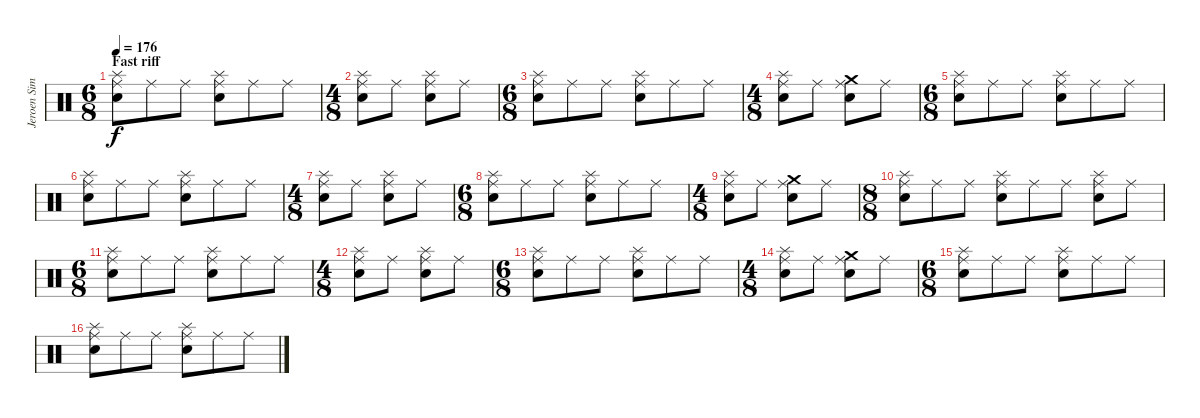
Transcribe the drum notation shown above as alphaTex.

\track ("Jeroen Simons" "Jeroen Sim") {instrument percussion}
\staff {score}
\articulation defaults
\ts (6 8)
\section ("" "Fast riff")
\tempo 176
\clef neutral
\ks c
("Ride (middle)" "Splash (hit)" "Electric Snare (hit)").8{dy f} "Ride (middle)".8 "Ride (middle)".8 ("Ride (middle)" "Splash (hit)" "Electric Snare (hit)").8 "Ride (middle)".8 "Ride (middle)".8 |
\ts (4 8)
("Ride (middle)" "Splash (hit)" "Electric Snare (hit)").8 "Ride (middle)".8 ("Ride (middle)" "Splash (hit)" "Electric Snare (hit)").8 "Ride (middle)".8 |
\ts (6 8)
("Ride (middle)" "Splash (hit)" "Electric Snare (hit)").8 "Ride (middle)".8 "Ride (middle)".8 ("Ride (middle)" "Splash (hit)" "Electric Snare (hit)").8 "Ride (middle)".8 "Ride (middle)".8 |
\ts (4 8)
("Ride (middle)" "Splash (hit)" "Electric Snare (hit)").8 "Ride (middle)".8 ("Ride (middle)" "Crash medium (hit)" "Electric Snare (hit)").8 "Ride (middle)".8 |
\ts (6 8)
("Ride (middle)" "Splash (hit)" "Electric Snare (hit)").8 "Ride (middle)".8 "Ride (middle)".8 ("Ride (middle)" "Splash (hit)" "Electric Snare (hit)").8 "Ride (middle)".8 "Ride (middle)".8 |
("Ride (middle)" "Splash (hit)" "Electric Snare (hit)").8 "Ride (middle)".8 "Ride (middle)".8 ("Ride (middle)" "Splash (hit)" "Electric Snare (hit)").8 "Ride (middle)".8 "Ride (middle)".8 |
\ts (4 8)
("Ride (middle)" "Splash (hit)" "Electric Snare (hit)").8 "Ride (middle)".8 ("Ride (middle)" "Splash (hit)" "Electric Snare (hit)").8 "Ride (middle)".8 |
\ts (6 8)
("Ride (middle)" "Splash (hit)" "Electric Snare (hit)").8 "Ride (middle)".8 "Ride (middle)".8 ("Ride (middle)" "Splash (hit)" "Electric Snare (hit)").8 "Ride (middle)".8 "Ride (middle)".8 |
\ts (4 8)
("Ride (middle)" "Splash (hit)" "Electric Snare (hit)").8 "Ride (middle)".8 ("Ride (middle)" "Crash medium (hit)" "Electric Snare (hit)").8 "Ride (middle)".8 |
\ts (8 8)
("Ride (middle)" "Splash (hit)" "Electric Snare (hit)").8 "Ride (middle)".8 "Ride (middle)".8 ("Ride (middle)" "Splash (hit)" "Electric Snare (hit)").8 "Ride (middle)".8 "Ride (middle)".8 ("Ride (middle)" "Splash (hit)" "Electric Snare (hit)").8 "Ride (middle)".8 |
\ts (6 8)
("Ride (middle)" "Splash (hit)" "Electric Snare (hit)").8 "Ride (middle)".8 "Ride (middle)".8 ("Ride (middle)" "Splash (hit)" "Electric Snare (hit)").8 "Ride (middle)".8 "Ride (middle)".8 |
\ts (4 8)
("Ride (middle)" "Splash (hit)" "Electric Snare (hit)").8 "Ride (middle)".8 ("Ride (middle)" "Splash (hit)" "Electric Snare (hit)").8 "Ride (middle)".8 |
\ts (6 8)
("Ride (middle)" "Splash (hit)" "Electric Snare (hit)").8 "Ride (middle)".8 "Ride (middle)".8 ("Ride (middle)" "Splash (hit)" "Electric Snare (hit)").8 "Ride (middle)".8 "Ride (middle)".8 |
\ts (4 8)
("Ride (middle)" "Splash (hit)" "Electric Snare (hit)").8 "Ride (middle)".8 ("Ride (middle)" "Crash medium (hit)" "Electric Snare (hit)").8 "Ride (middle)".8 |
\ts (6 8)
("Ride (middle)" "Splash (hit)" "Electric Snare (hit)").8 "Ride (middle)".8 "Ride (middle)".8 ("Ride (middle)" "Splash (hit)" "Electric Snare (hit)").8 "Ride (middle)".8 "Ride (middle)".8 |
("Ride (middle)" "Splash (hit)" "Electric Snare (hit)").8 "Ride (middle)".8 "Ride (middle)".8 ("Ride (middle)" "Splash (hit)" "Electric Snare (hit)").8 "Ride (middle)".8 "Ride (middle)".8
